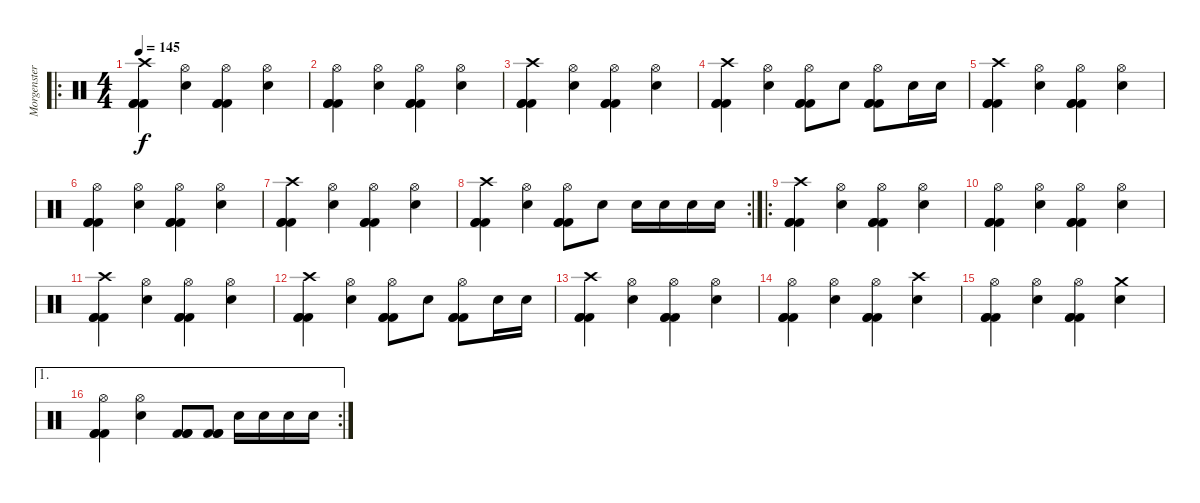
\track ("Morgenstern (Schlagzeug)" "Morgenster") {instrument percussion}
\staff {score}
\articulation defaults
\ro
\ts (4 4)
\tempo 145
\clef neutral
\ks c
("Crash high (hit)" "Kick (hit) 2" "Kick (hit) 2" "Kick (hit) 2").4{dy f} ("Hi-Hat (open)" "Snare (hit) 2").4 ("Hi-Hat (open)" "Kick (hit) 2" "Kick (hit) 2" "Kick (hit) 2").4 ("Hi-Hat (open)" "Snare (hit) 2").4 |
("Hi-Hat (open)" "Kick (hit) 2" "Kick (hit) 2" "Kick (hit) 2").4 ("Hi-Hat (open)" "Snare (hit) 2").4 ("Hi-Hat (open)" "Kick (hit) 2" "Kick (hit) 2" "Kick (hit) 2").4 ("Hi-Hat (open)" "Snare (hit) 2").4 |
("Crash high (hit)" "Kick (hit) 2" "Kick (hit) 2" "Kick (hit) 2").4 ("Hi-Hat (open)" "Snare (hit) 2").4 ("Hi-Hat (open)" "Kick (hit) 2" "Kick (hit) 2" "Kick (hit) 2").4 ("Hi-Hat (open)" "Snare (hit) 2").4 |
("Crash high (hit)" "Kick (hit) 2" "Kick (hit) 2" "Kick (hit) 2").4 ("Hi-Hat (open)" "Snare (hit) 2").4 ("Hi-Hat (open)" "Kick (hit) 2" "Kick (hit) 2" "Kick (hit) 2").8 "Snare (hit) 2".8 ("Hi-Hat (open)" "Kick (hit) 2" "Kick (hit) 2" "Kick (hit) 2").8 "Snare (hit) 2".16 "Snare (hit) 2".16 |
("Crash high (hit)" "Kick (hit) 2" "Kick (hit) 2" "Kick (hit) 2").4 ("Hi-Hat (open)" "Snare (hit) 2").4 ("Hi-Hat (open)" "Kick (hit) 2" "Kick (hit) 2" "Kick (hit) 2").4 ("Hi-Hat (open)" "Snare (hit) 2").4 |
("Hi-Hat (open)" "Kick (hit) 2" "Kick (hit) 2" "Kick (hit) 2").4 ("Hi-Hat (open)" "Snare (hit) 2").4 ("Hi-Hat (open)" "Kick (hit) 2" "Kick (hit) 2" "Kick (hit) 2").4 ("Hi-Hat (open)" "Snare (hit) 2").4 |
("Crash high (hit)" "Kick (hit) 2" "Kick (hit) 2" "Kick (hit) 2").4 ("Hi-Hat (open)" "Snare (hit) 2").4 ("Hi-Hat (open)" "Kick (hit) 2" "Kick (hit) 2" "Kick (hit) 2").4 ("Hi-Hat (open)" "Snare (hit) 2").4 |
\rc 2
("Crash high (hit)" "Kick (hit) 2" "Kick (hit) 2" "Kick (hit) 2").4 ("Hi-Hat (open)" "Snare (hit) 2").4 ("Hi-Hat (open)" "Kick (hit) 2" "Kick (hit) 2" "Kick (hit) 2").8 "Snare (hit) 2".8 "Snare (hit) 2".16 "Snare (hit) 2".16 "Snare (hit) 2".16 "Snare (hit) 2".16 |
\ro
("Crash high (hit)" "Kick (hit) 2" "Kick (hit) 2" "Kick (hit) 2").4 ("Hi-Hat (open)" "Snare (hit) 2").4 ("Hi-Hat (open)" "Kick (hit) 2" "Kick (hit) 2" "Kick (hit) 2").4 ("Hi-Hat (open)" "Snare (hit) 2").4 |
("Hi-Hat (open)" "Kick (hit) 2" "Kick (hit) 2" "Kick (hit) 2").4 ("Hi-Hat (open)" "Snare (hit) 2").4 ("Hi-Hat (open)" "Kick (hit) 2" "Kick (hit) 2" "Kick (hit) 2").4 ("Hi-Hat (open)" "Snare (hit) 2").4 |
("Crash high (hit)" "Kick (hit) 2" "Kick (hit) 2" "Kick (hit) 2").4 ("Hi-Hat (open)" "Snare (hit) 2").4 ("Hi-Hat (open)" "Kick (hit) 2" "Kick (hit) 2" "Kick (hit) 2").4 ("Hi-Hat (open)" "Snare (hit) 2").4 |
("Crash high (hit)" "Kick (hit) 2" "Kick (hit) 2" "Kick (hit) 2").4 ("Hi-Hat (open)" "Snare (hit) 2").4 ("Hi-Hat (open)" "Kick (hit) 2" "Kick (hit) 2" "Kick (hit) 2").8 "Snare (hit) 2".8 ("Hi-Hat (open)" "Kick (hit) 2" "Kick (hit) 2" "Kick (hit) 2").8 "Snare (hit) 2".16 "Snare (hit) 2".16 |
("Crash high (hit)" "Kick (hit) 2" "Kick (hit) 2" "Kick (hit) 2").4 ("Hi-Hat (open)" "Snare (hit) 2").4 ("Hi-Hat (open)" "Kick (hit) 2" "Kick (hit) 2" "Kick (hit) 2").4 ("Hi-Hat (open)" "Snare (hit) 2").4 |
("Hi-Hat (open)" "Kick (hit) 2" "Kick (hit) 2" "Kick (hit) 2").4 ("Hi-Hat (open)" "Snare (hit) 2").4 ("Hi-Hat (open)" "Kick (hit) 2" "Kick (hit) 2" "Kick (hit) 2").4 ("Crash high (hit)" "Snare (hit) 2").4 |
("Hi-Hat (open)" "Kick (hit) 2" "Kick (hit) 2" "Kick (hit) 2").4 ("Hi-Hat (open)" "Snare (hit) 2").4 ("Hi-Hat (open)" "Kick (hit) 2" "Kick (hit) 2" "Kick (hit) 2").4 ("Crash medium (hit)" "Snare (hit) 2").4 |
\ae 1
\rc 2
("Hi-Hat (open)" "Kick (hit) 2" "Kick (hit) 2" "Kick (hit) 2").4 ("Hi-Hat (open)" "Snare (hit) 2").4 ("Kick (hit) 2" "Kick (hit) 2" "Kick (hit) 2").8 ("Kick (hit) 2" "Kick (hit) 2" "Kick (hit) 2").8 "Snare (hit) 2".16 "Snare (hit) 2".16 "Snare (hit) 2".16 "Snare (hit) 2".16
